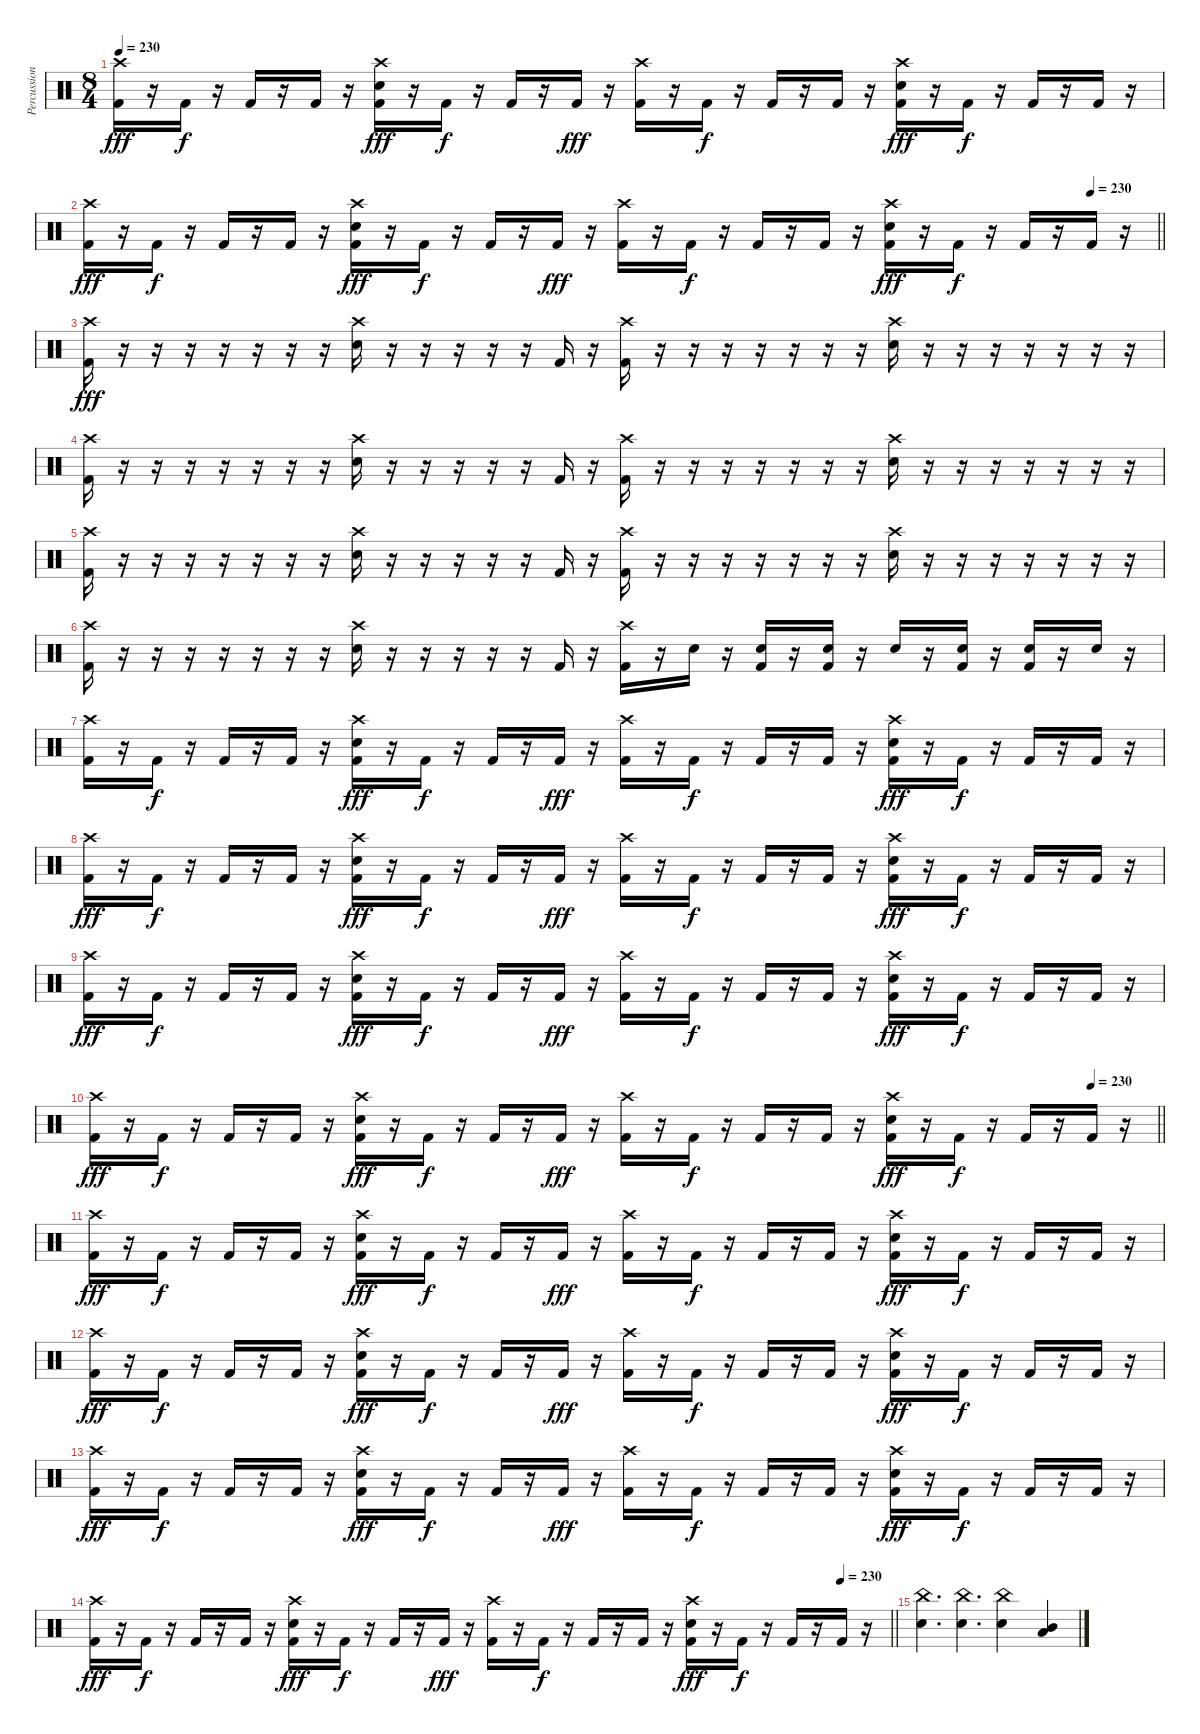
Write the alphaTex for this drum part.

\track ("Percussions" "Percussion") {instrument percussion}
\staff {score}
\articulation defaults
\ts (8 4)
\tempo 230
\clef neutral
\ks c
("Crash high (hit)" "Kick (hit) 2").16{dy fff} r.16 "Kick (hit) 2".16{dy f} r.16 "Kick (hit) 2".16 r.16 "Kick (hit) 2".16 r.16 ("Crash high (hit)" "Electric Snare (hit)" "Kick (hit) 2").16{dy fff} r.16 "Kick (hit) 2".16{dy f} r.16 "Kick (hit) 2".16 r.16 "Kick (hit) 2".16{dy fff} r.16 ("Crash high (hit)" "Kick (hit) 2").16 r.16 "Kick (hit) 2".16{dy f} r.16 "Kick (hit) 2".16 r.16 "Kick (hit) 2".16 r.16 ("Crash high (hit)" "Electric Snare (hit)" "Kick (hit) 2").16{dy fff} r.16 "Kick (hit) 2".16{dy f} r.16 "Kick (hit) 2".16 r.16 "Kick (hit) 2".16 r.16 |
\tempo (230 0.9375)
\barLineRight lightlight
("Crash high (hit)" "Kick (hit) 2").16{dy fff} r.16 "Kick (hit) 2".16{dy f} r.16 "Kick (hit) 2".16 r.16 "Kick (hit) 2".16 r.16 ("Crash high (hit)" "Electric Snare (hit)" "Kick (hit) 2").16{dy fff} r.16 "Kick (hit) 2".16{dy f} r.16 "Kick (hit) 2".16 r.16 "Kick (hit) 2".16{dy fff} r.16 ("Crash high (hit)" "Kick (hit) 2").16 r.16 "Kick (hit) 2".16{dy f} r.16 "Kick (hit) 2".16 r.16 "Kick (hit) 2".16 r.16 ("Crash high (hit)" "Electric Snare (hit)" "Kick (hit) 2").16{dy fff} r.16 "Kick (hit) 2".16{dy f} r.16 "Kick (hit) 2".16 r.16 "Kick (hit) 2".16 r.16 |
("Crash high (hit)" "Kick (hit) 2").16{dy fff} r.16 r.16 r.16 r.16 r.16 r.16 r.16 ("Crash high (hit)" "Electric Snare (hit)").16 r.16 r.16 r.16 r.16 r.16 "Kick (hit) 2".16 r.16 ("Crash high (hit)" "Kick (hit) 2").16 r.16 r.16 r.16 r.16 r.16 r.16 r.16 ("Crash high (hit)" "Electric Snare (hit)").16 r.16 r.16 r.16 r.16 r.16 r.16 r.16 |
("Crash high (hit)" "Kick (hit) 2").16 r.16 r.16 r.16 r.16 r.16 r.16 r.16 ("Crash high (hit)" "Electric Snare (hit)").16 r.16 r.16 r.16 r.16 r.16 "Kick (hit) 2".16 r.16 ("Crash high (hit)" "Kick (hit) 2").16 r.16 r.16 r.16 r.16 r.16 r.16 r.16 ("Crash high (hit)" "Electric Snare (hit)").16 r.16 r.16 r.16 r.16 r.16 r.16 r.16 |
("Crash high (hit)" "Kick (hit) 2").16 r.16 r.16 r.16 r.16 r.16 r.16 r.16 ("Crash high (hit)" "Electric Snare (hit)").16 r.16 r.16 r.16 r.16 r.16 "Kick (hit) 2".16 r.16 ("Crash high (hit)" "Kick (hit) 2").16 r.16 r.16 r.16 r.16 r.16 r.16 r.16 ("Crash high (hit)" "Electric Snare (hit)").16 r.16 r.16 r.16 r.16 r.16 r.16 r.16 |
("Crash high (hit)" "Kick (hit) 2").16 r.16 r.16 r.16 r.16 r.16 r.16 r.16 ("Crash high (hit)" "Electric Snare (hit)").16 r.16 r.16 r.16 r.16 r.16 "Kick (hit) 2".16 r.16 ("Crash high (hit)" "Kick (hit) 2").16 r.16 "Electric Snare (hit)".16 r.16 ("Electric Snare (hit)" "Kick (hit) 2").16 r.16 ("Electric Snare (hit)" "Kick (hit) 2").16 r.16 "Electric Snare (hit)".16 r.16 ("Electric Snare (hit)" "Kick (hit) 2").16 r.16 ("Electric Snare (hit)" "Kick (hit) 2").16 r.16 "Electric Snare (hit)".16 r.16 |
("Crash high (hit)" "Kick (hit) 2").16 r.16 "Kick (hit) 2".16{dy f} r.16 "Kick (hit) 2".16 r.16 "Kick (hit) 2".16 r.16 ("Crash high (hit)" "Electric Snare (hit)" "Kick (hit) 2").16{dy fff} r.16 "Kick (hit) 2".16{dy f} r.16 "Kick (hit) 2".16 r.16 "Kick (hit) 2".16{dy fff} r.16 ("Crash high (hit)" "Kick (hit) 2").16 r.16 "Kick (hit) 2".16{dy f} r.16 "Kick (hit) 2".16 r.16 "Kick (hit) 2".16 r.16 ("Crash high (hit)" "Electric Snare (hit)" "Kick (hit) 2").16{dy fff} r.16 "Kick (hit) 2".16{dy f} r.16 "Kick (hit) 2".16 r.16 "Kick (hit) 2".16 r.16 |
("Crash high (hit)" "Kick (hit) 2").16{dy fff} r.16 "Kick (hit) 2".16{dy f} r.16 "Kick (hit) 2".16 r.16 "Kick (hit) 2".16 r.16 ("Crash high (hit)" "Electric Snare (hit)" "Kick (hit) 2").16{dy fff} r.16 "Kick (hit) 2".16{dy f} r.16 "Kick (hit) 2".16 r.16 "Kick (hit) 2".16{dy fff} r.16 ("Crash high (hit)" "Kick (hit) 2").16 r.16 "Kick (hit) 2".16{dy f} r.16 "Kick (hit) 2".16 r.16 "Kick (hit) 2".16 r.16 ("Crash high (hit)" "Electric Snare (hit)" "Kick (hit) 2").16{dy fff} r.16 "Kick (hit) 2".16{dy f} r.16 "Kick (hit) 2".16 r.16 "Kick (hit) 2".16 r.16 |
("Crash high (hit)" "Kick (hit) 2").16{dy fff} r.16 "Kick (hit) 2".16{dy f} r.16 "Kick (hit) 2".16 r.16 "Kick (hit) 2".16 r.16 ("Crash high (hit)" "Electric Snare (hit)" "Kick (hit) 2").16{dy fff} r.16 "Kick (hit) 2".16{dy f} r.16 "Kick (hit) 2".16 r.16 "Kick (hit) 2".16{dy fff} r.16 ("Crash high (hit)" "Kick (hit) 2").16 r.16 "Kick (hit) 2".16{dy f} r.16 "Kick (hit) 2".16 r.16 "Kick (hit) 2".16 r.16 ("Crash high (hit)" "Electric Snare (hit)" "Kick (hit) 2").16{dy fff} r.16 "Kick (hit) 2".16{dy f} r.16 "Kick (hit) 2".16 r.16 "Kick (hit) 2".16 r.16 |
\tempo (230 0.9375)
\barLineRight lightlight
("Crash high (hit)" "Kick (hit) 2").16{dy fff} r.16 "Kick (hit) 2".16{dy f} r.16 "Kick (hit) 2".16 r.16 "Kick (hit) 2".16 r.16 ("Crash high (hit)" "Electric Snare (hit)" "Kick (hit) 2").16{dy fff} r.16 "Kick (hit) 2".16{dy f} r.16 "Kick (hit) 2".16 r.16 "Kick (hit) 2".16{dy fff} r.16 ("Crash high (hit)" "Kick (hit) 2").16 r.16 "Kick (hit) 2".16{dy f} r.16 "Kick (hit) 2".16 r.16 "Kick (hit) 2".16 r.16 ("Crash high (hit)" "Electric Snare (hit)" "Kick (hit) 2").16{dy fff} r.16 "Kick (hit) 2".16{dy f} r.16 "Kick (hit) 2".16 r.16 "Kick (hit) 2".16 r.16 |
("Crash high (hit)" "Kick (hit) 2").16{dy fff} r.16 "Kick (hit) 2".16{dy f} r.16 "Kick (hit) 2".16 r.16 "Kick (hit) 2".16 r.16 ("Crash high (hit)" "Electric Snare (hit)" "Kick (hit) 2").16{dy fff} r.16 "Kick (hit) 2".16{dy f} r.16 "Kick (hit) 2".16 r.16 "Kick (hit) 2".16{dy fff} r.16 ("Crash high (hit)" "Kick (hit) 2").16 r.16 "Kick (hit) 2".16{dy f} r.16 "Kick (hit) 2".16 r.16 "Kick (hit) 2".16 r.16 ("Crash high (hit)" "Electric Snare (hit)" "Kick (hit) 2").16{dy fff} r.16 "Kick (hit) 2".16{dy f} r.16 "Kick (hit) 2".16 r.16 "Kick (hit) 2".16 r.16 |
("Crash high (hit)" "Kick (hit) 2").16{dy fff} r.16 "Kick (hit) 2".16{dy f} r.16 "Kick (hit) 2".16 r.16 "Kick (hit) 2".16 r.16 ("Crash high (hit)" "Electric Snare (hit)" "Kick (hit) 2").16{dy fff} r.16 "Kick (hit) 2".16{dy f} r.16 "Kick (hit) 2".16 r.16 "Kick (hit) 2".16{dy fff} r.16 ("Crash high (hit)" "Kick (hit) 2").16 r.16 "Kick (hit) 2".16{dy f} r.16 "Kick (hit) 2".16 r.16 "Kick (hit) 2".16 r.16 ("Crash high (hit)" "Electric Snare (hit)" "Kick (hit) 2").16{dy fff} r.16 "Kick (hit) 2".16{dy f} r.16 "Kick (hit) 2".16 r.16 "Kick (hit) 2".16 r.16 |
("Crash high (hit)" "Kick (hit) 2").16{dy fff} r.16 "Kick (hit) 2".16{dy f} r.16 "Kick (hit) 2".16 r.16 "Kick (hit) 2".16 r.16 ("Crash high (hit)" "Electric Snare (hit)" "Kick (hit) 2").16{dy fff} r.16 "Kick (hit) 2".16{dy f} r.16 "Kick (hit) 2".16 r.16 "Kick (hit) 2".16{dy fff} r.16 ("Crash high (hit)" "Kick (hit) 2").16 r.16 "Kick (hit) 2".16{dy f} r.16 "Kick (hit) 2".16 r.16 "Kick (hit) 2".16 r.16 ("Crash high (hit)" "Electric Snare (hit)" "Kick (hit) 2").16{dy fff} r.16 "Kick (hit) 2".16{dy f} r.16 "Kick (hit) 2".16 r.16 "Kick (hit) 2".16 r.16 |
\tempo (230 0.9375)
\barLineRight lightlight
("Crash high (hit)" "Kick (hit) 2").16{dy fff} r.16 "Kick (hit) 2".16{dy f} r.16 "Kick (hit) 2".16 r.16 "Kick (hit) 2".16 r.16 ("Crash high (hit)" "Electric Snare (hit)" "Kick (hit) 2").16{dy fff} r.16 "Kick (hit) 2".16{dy f} r.16 "Kick (hit) 2".16 r.16 "Kick (hit) 2".16{dy fff} r.16 ("Crash high (hit)" "Kick (hit) 2").16 r.16 "Kick (hit) 2".16{dy f} r.16 "Kick (hit) 2".16 r.16 "Kick (hit) 2".16 r.16 ("Crash high (hit)" "Electric Snare (hit)" "Kick (hit) 2").16{dy fff} r.16 "Kick (hit) 2".16{dy f} r.16 "Kick (hit) 2".16 r.16 "Kick (hit) 2".16 r.16 |
("China (hit)" "Electric Snare (hit)").4{d} ("China (hit)" "Electric Snare (hit)").4{d} ("China (hit)" "Electric Snare (hit)").4 ("Mid Tom (hit)" "Low Tom (hit)").4
